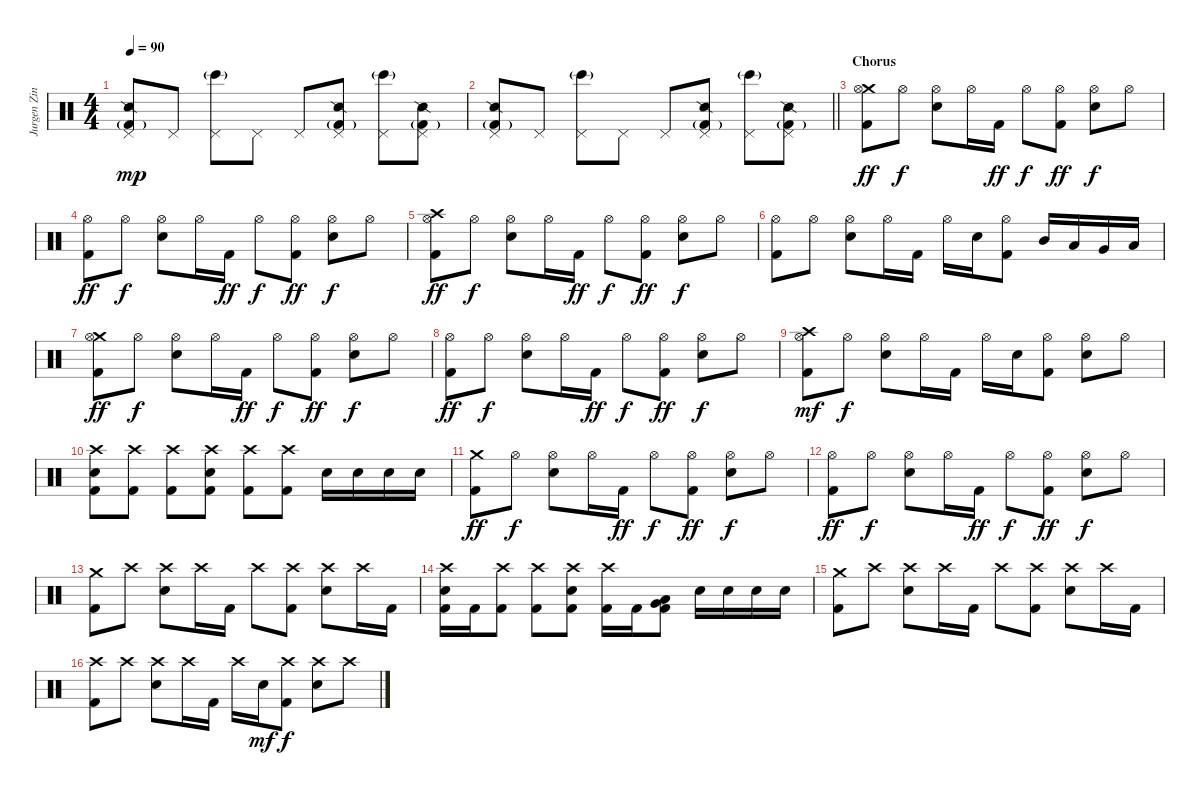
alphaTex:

\track ("Jurgen Zing" "Jurgen Zin") {instrument percussion}
\staff {score}
\articulation defaults
\ts (4 4)
\tempo 90
\clef neutral
\ks c
("Pedal Hi-Hat (hit)" "Snare (side stick) 2" "Kick (hit) 2"{g}).8{dy mp} "Pedal Hi-Hat (hit)".8 ("Pedal Hi-Hat (hit)" "Bongo High (hit)"{g}).8 "Pedal Hi-Hat (hit)".8 "Pedal Hi-Hat (hit)".8 ("Pedal Hi-Hat (hit)" "Snare (side stick) 2" "Kick (hit) 2"{g}).8 ("Pedal Hi-Hat (hit)" "Bongo High (hit)"{g}).8 ("Pedal Hi-Hat (hit)" "Snare (side stick) 2" "Kick (hit) 2"{g}).8 |
\barLineRight lightlight
("Pedal Hi-Hat (hit)" "Snare (side stick) 2" "Kick (hit) 2"{g}).8 "Pedal Hi-Hat (hit)".8 ("Pedal Hi-Hat (hit)" "Bongo High (hit)"{g}).8 "Pedal Hi-Hat (hit)".8 "Pedal Hi-Hat (hit)".8 ("Pedal Hi-Hat (hit)" "Snare (side stick) 2" "Kick (hit) 2"{g}).8 ("Pedal Hi-Hat (hit)" "Bongo High (hit)"{g}).8 ("Pedal Hi-Hat (hit)" "Snare (side stick) 2" "Kick (hit) 2"{g}).8 |
\section ("" "Chorus")
("Crash medium (hit)" "Hi-Hat (open)" "Kick (hit) 2").8{dy ff} "Hi-Hat (open)".8{dy f} ("Hi-Hat (open)" "Electric Snare (hit)").8 "Hi-Hat (open)".16 "Kick (hit) 2".16{dy ff} "Hi-Hat (open)".8{dy f} ("Hi-Hat (open)" "Kick (hit) 2").8{dy ff} ("Hi-Hat (open)" "Electric Snare (hit)").8{dy f} "Hi-Hat (open)".8 |
("Hi-Hat (open)" "Kick (hit) 2").8{dy ff} "Hi-Hat (open)".8{dy f} ("Hi-Hat (open)" "Electric Snare (hit)").8 "Hi-Hat (open)".16 "Kick (hit) 2".16{dy ff} "Hi-Hat (open)".8{dy f} ("Hi-Hat (open)" "Kick (hit) 2").8{dy ff} ("Hi-Hat (open)" "Electric Snare (hit)").8{dy f} "Hi-Hat (open)".8 |
("Crash high (hit)" "Hi-Hat (open)" "Kick (hit) 2").8{dy ff} "Hi-Hat (open)".8{dy f} ("Hi-Hat (open)" "Electric Snare (hit)").8 "Hi-Hat (open)".16 "Kick (hit) 2".16{dy ff} "Hi-Hat (open)".8{dy f} ("Hi-Hat (open)" "Kick (hit) 2").8{dy ff} ("Hi-Hat (open)" "Electric Snare (hit)").8{dy f} "Hi-Hat (open)".8 |
("Hi-Hat (open)" "Kick (hit) 2").8 "Hi-Hat (open)".8 ("Hi-Hat (open)" "Electric Snare (hit)").8 "Hi-Hat (open)".16 "Kick (hit) 2".16 "Hi-Hat (open)".16 "Electric Snare (hit)".16 ("Hi-Hat (open)" "Kick (hit) 2").8 "Mid Tom (hit)".16 "Low Tom (hit)".16 "Very Low Tom (hit)".16 "Low Floor Tom (hit)".16 |
("Crash medium (hit)" "Hi-Hat (open)" "Kick (hit) 2").8{dy ff} "Hi-Hat (open)".8{dy f} ("Hi-Hat (open)" "Electric Snare (hit)").8 "Hi-Hat (open)".16 "Kick (hit) 2".16{dy ff} "Hi-Hat (open)".8{dy f} ("Hi-Hat (open)" "Kick (hit) 2").8{dy ff} ("Hi-Hat (open)" "Electric Snare (hit)").8{dy f} "Hi-Hat (open)".8 |
("Hi-Hat (open)" "Kick (hit) 2").8{dy ff} "Hi-Hat (open)".8{dy f} ("Hi-Hat (open)" "Electric Snare (hit)").8 "Hi-Hat (open)".16 "Kick (hit) 2".16{dy ff} "Hi-Hat (open)".8{dy f} ("Hi-Hat (open)" "Kick (hit) 2").8{dy ff} ("Hi-Hat (open)" "Electric Snare (hit)").8{dy f} "Hi-Hat (open)".8 |
("Crash high (hit)" "Hi-Hat (open)" "Kick (hit) 2").8{dy mf} "Hi-Hat (open)".8{dy f} ("Hi-Hat (open)" "Electric Snare (hit)").8 "Hi-Hat (open)".16 "Kick (hit) 2".16 "Hi-Hat (open)".16 "Electric Snare (hit)".16 ("Hi-Hat (open)" "Kick (hit) 2").8 ("Hi-Hat (open)" "Electric Snare (hit)").8 "Hi-Hat (open)".8 |
("Crash high (hit)" "Electric Snare (hit)" "Kick (hit) 2").8 ("Crash high (hit)" "Kick (hit) 2").8 ("Crash high (hit)" "Kick (hit) 2").8 ("Crash high (hit)" "Electric Snare (hit)" "Kick (hit) 2").8 ("Crash high (hit)" "Kick (hit) 2").8 ("Crash high (hit)" "Kick (hit) 2").8 "Electric Snare (hit)".16 "Electric Snare (hit)".16 "Electric Snare (hit)".16 "Electric Snare (hit)".16 |
("Crash medium (hit)" "Kick (hit) 2").8{dy ff} "Hi-Hat (open)".8{dy f} ("Hi-Hat (open)" "Electric Snare (hit)").8 "Hi-Hat (open)".16 "Kick (hit) 2".16{dy ff} "Hi-Hat (open)".8{dy f} ("Hi-Hat (open)" "Kick (hit) 2").8{dy ff} ("Hi-Hat (open)" "Electric Snare (hit)").8{dy f} "Hi-Hat (open)".8 |
("Hi-Hat (open)" "Kick (hit) 2").8{dy ff} "Hi-Hat (open)".8{dy f} ("Hi-Hat (open)" "Electric Snare (hit)").8 "Hi-Hat (open)".16 "Kick (hit) 2".16{dy ff} "Hi-Hat (open)".8{dy f} ("Hi-Hat (open)" "Kick (hit) 2").8{dy ff} ("Hi-Hat (open)" "Electric Snare (hit)").8{dy f} "Hi-Hat (open)".8 |
("Crash medium (hit)" "Kick (hit) 2").8 "Crash high (hit)".8 ("Crash high (hit)" "Electric Snare (hit)").8 "Crash high (hit)".16 "Kick (hit) 2".16 "Crash high (hit)".8 ("Crash high (hit)" "Kick (hit) 2").8 ("Crash high (hit)" "Electric Snare (hit)").8 "Crash high (hit)".16 "Kick (hit) 2".16 |
("Crash high (hit)" "Electric Snare (hit)" "Kick (hit) 2").16 "Kick (hit) 2".16 ("Crash high (hit)" "Kick (hit) 2").8 ("Crash high (hit)" "Kick (hit) 2").8 ("Crash high (hit)" "Electric Snare (hit)" "Kick (hit) 2").8 ("Crash high (hit)" "Kick (hit) 2").16 "Kick (hit) 2".16 ("Low Tom (hit)" "Very Low Tom (hit)" "Kick (hit) 2").8 "Electric Snare (hit)".16 "Electric Snare (hit)".16 "Electric Snare (hit)".16 "Electric Snare (hit)".16 |
("Crash medium (hit)" "Kick (hit) 2").8 "Crash high (hit)".8 ("Crash high (hit)" "Electric Snare (hit)").8 "Crash high (hit)".16 "Kick (hit) 2".16 "Crash high (hit)".8 ("Crash high (hit)" "Kick (hit) 2").8 ("Crash high (hit)" "Electric Snare (hit)").8 "Crash high (hit)".16 "Kick (hit) 2".16 |
("Crash high (hit)" "Kick (hit) 2").8 "Crash high (hit)".8 ("Crash high (hit)" "Electric Snare (hit)").8 "Crash high (hit)".16 "Kick (hit) 2".16 "Crash high (hit)".16 "Electric Snare (hit)".16{dy mf} ("Crash high (hit)" "Kick (hit) 2").8{dy f} ("Crash high (hit)" "Electric Snare (hit)").8 "Crash high (hit)".8
